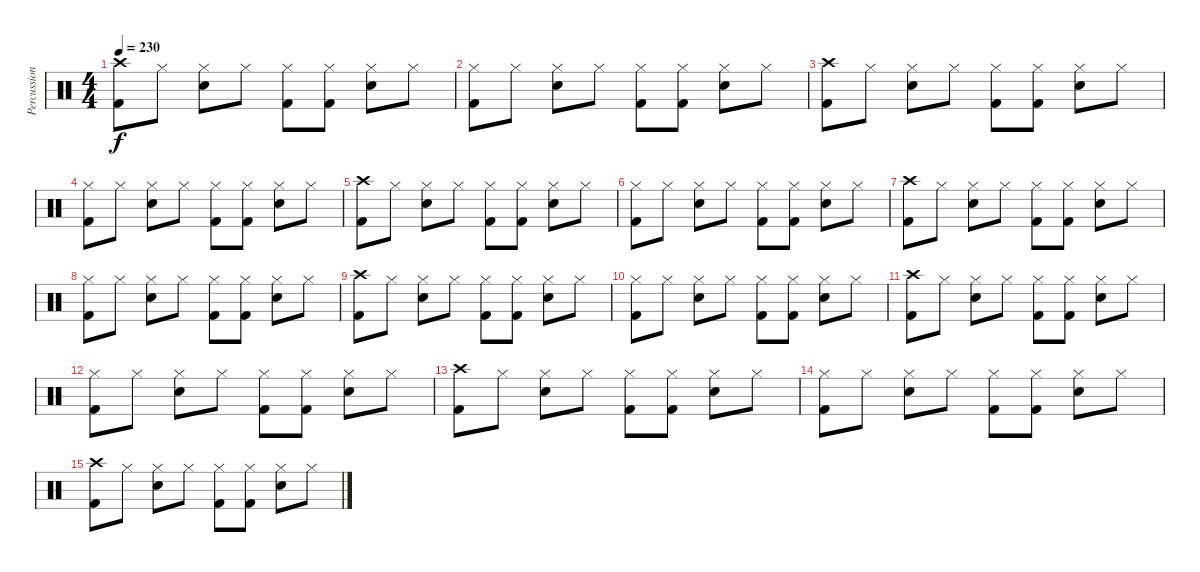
\track ("Percussions" "Percussion") {instrument percussion}
\staff {score}
\articulation defaults
\ts (4 4)
\tempo 230
\clef neutral
\ks c
("Crash high (hit)" "Kick (hit) 2").8{dy f} "Hi-Hat (closed)".8 ("Hi-Hat (closed)" "Electric Snare (hit)").8 "Hi-Hat (closed)".8 ("Hi-Hat (closed)" "Kick (hit) 2").8 ("Hi-Hat (closed)" "Kick (hit) 2").8 ("Hi-Hat (closed)" "Electric Snare (hit)").8 "Hi-Hat (closed)".8 |
("Hi-Hat (closed)" "Kick (hit) 2").8 "Hi-Hat (closed)".8 ("Hi-Hat (closed)" "Electric Snare (hit)").8 "Hi-Hat (closed)".8 ("Hi-Hat (closed)" "Kick (hit) 2").8 ("Hi-Hat (closed)" "Kick (hit) 2").8 ("Hi-Hat (closed)" "Electric Snare (hit)").8 "Hi-Hat (closed)".8 |
("Crash high (hit)" "Kick (hit) 2").8 "Hi-Hat (closed)".8 ("Hi-Hat (closed)" "Electric Snare (hit)").8 "Hi-Hat (closed)".8 ("Hi-Hat (closed)" "Kick (hit) 2").8 ("Hi-Hat (closed)" "Kick (hit) 2").8 ("Hi-Hat (closed)" "Electric Snare (hit)").8 "Hi-Hat (closed)".8 |
("Hi-Hat (closed)" "Kick (hit) 2").8 "Hi-Hat (closed)".8 ("Hi-Hat (closed)" "Electric Snare (hit)").8 "Hi-Hat (closed)".8 ("Hi-Hat (closed)" "Kick (hit) 2").8 ("Hi-Hat (closed)" "Kick (hit) 2").8 ("Hi-Hat (closed)" "Electric Snare (hit)").8 "Hi-Hat (closed)".8 |
("Crash high (hit)" "Kick (hit) 2").8 "Hi-Hat (closed)".8 ("Hi-Hat (closed)" "Electric Snare (hit)").8 "Hi-Hat (closed)".8 ("Hi-Hat (closed)" "Kick (hit) 2").8 ("Hi-Hat (closed)" "Kick (hit) 2").8 ("Hi-Hat (closed)" "Electric Snare (hit)").8 "Hi-Hat (closed)".8 |
("Hi-Hat (closed)" "Kick (hit) 2").8 "Hi-Hat (closed)".8 ("Hi-Hat (closed)" "Electric Snare (hit)").8 "Hi-Hat (closed)".8 ("Hi-Hat (closed)" "Kick (hit) 2").8 ("Hi-Hat (closed)" "Kick (hit) 2").8 ("Hi-Hat (closed)" "Electric Snare (hit)").8 "Hi-Hat (closed)".8 |
("Crash high (hit)" "Kick (hit) 2").8 "Hi-Hat (closed)".8 ("Hi-Hat (closed)" "Electric Snare (hit)").8 "Hi-Hat (closed)".8 ("Hi-Hat (closed)" "Kick (hit) 2").8 ("Hi-Hat (closed)" "Kick (hit) 2").8 ("Hi-Hat (closed)" "Electric Snare (hit)").8 "Hi-Hat (closed)".8 |
("Hi-Hat (closed)" "Kick (hit) 2").8 "Hi-Hat (closed)".8 ("Hi-Hat (closed)" "Electric Snare (hit)").8 "Hi-Hat (closed)".8 ("Hi-Hat (closed)" "Kick (hit) 2").8 ("Hi-Hat (closed)" "Kick (hit) 2").8 ("Hi-Hat (closed)" "Electric Snare (hit)").8 "Hi-Hat (closed)".8 |
("Crash high (hit)" "Kick (hit) 2").8 "Hi-Hat (closed)".8 ("Hi-Hat (closed)" "Electric Snare (hit)").8 "Hi-Hat (closed)".8 ("Hi-Hat (closed)" "Kick (hit) 2").8 ("Hi-Hat (closed)" "Kick (hit) 2").8 ("Hi-Hat (closed)" "Electric Snare (hit)").8 "Hi-Hat (closed)".8 |
("Hi-Hat (closed)" "Kick (hit) 2").8 "Hi-Hat (closed)".8 ("Hi-Hat (closed)" "Electric Snare (hit)").8 "Hi-Hat (closed)".8 ("Hi-Hat (closed)" "Kick (hit) 2").8 ("Hi-Hat (closed)" "Kick (hit) 2").8 ("Hi-Hat (closed)" "Electric Snare (hit)").8 "Hi-Hat (closed)".8 |
("Crash high (hit)" "Kick (hit) 2").8 "Hi-Hat (closed)".8 ("Hi-Hat (closed)" "Electric Snare (hit)").8 "Hi-Hat (closed)".8 ("Hi-Hat (closed)" "Kick (hit) 2").8 ("Hi-Hat (closed)" "Kick (hit) 2").8 ("Hi-Hat (closed)" "Electric Snare (hit)").8 "Hi-Hat (closed)".8 |
("Hi-Hat (closed)" "Kick (hit) 2").8 "Hi-Hat (closed)".8 ("Hi-Hat (closed)" "Electric Snare (hit)").8 "Hi-Hat (closed)".8 ("Hi-Hat (closed)" "Kick (hit) 2").8 ("Hi-Hat (closed)" "Kick (hit) 2").8 ("Hi-Hat (closed)" "Electric Snare (hit)").8 "Hi-Hat (closed)".8 |
("Crash high (hit)" "Kick (hit) 2").8 "Hi-Hat (closed)".8 ("Hi-Hat (closed)" "Electric Snare (hit)").8 "Hi-Hat (closed)".8 ("Hi-Hat (closed)" "Kick (hit) 2").8 ("Hi-Hat (closed)" "Kick (hit) 2").8 ("Hi-Hat (closed)" "Electric Snare (hit)").8 "Hi-Hat (closed)".8 |
("Hi-Hat (closed)" "Kick (hit) 2").8 "Hi-Hat (closed)".8 ("Hi-Hat (closed)" "Electric Snare (hit)").8 "Hi-Hat (closed)".8 ("Hi-Hat (closed)" "Kick (hit) 2").8 ("Hi-Hat (closed)" "Kick (hit) 2").8 ("Hi-Hat (closed)" "Electric Snare (hit)").8 "Hi-Hat (closed)".8 |
("Crash high (hit)" "Kick (hit) 2").8 "Hi-Hat (closed)".8 ("Hi-Hat (closed)" "Electric Snare (hit)").8 "Hi-Hat (closed)".8 ("Hi-Hat (closed)" "Kick (hit) 2").8 ("Hi-Hat (closed)" "Kick (hit) 2").8 ("Hi-Hat (closed)" "Electric Snare (hit)").8 "Hi-Hat (closed)".8
